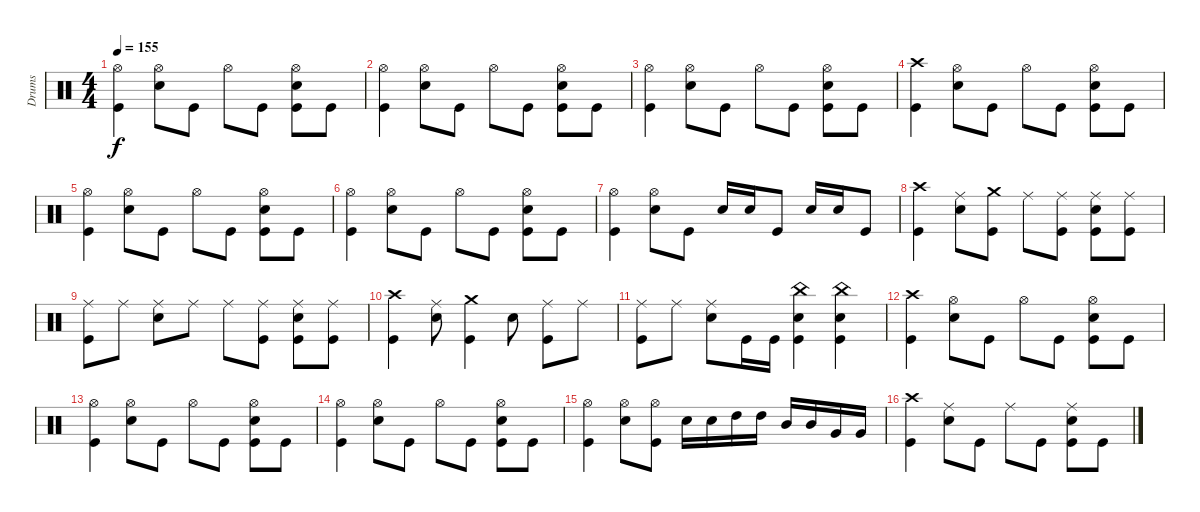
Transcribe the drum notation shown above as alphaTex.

\track ("Drums" "Drums") {instrument percussion}
\staff {score}
\articulation defaults
\ts (4 4)
\tempo 155
\clef neutral
\ks c
("Hi-Hat (open)" "Kick (hit)").4{dy f} ("Hi-Hat (open)" "Snare (hit) 2").8 "Kick (hit)".8 "Hi-Hat (open)".8 "Kick (hit)".8 ("Hi-Hat (open)" "Snare (hit) 2" "Kick (hit)").8 "Kick (hit)".8 |
("Hi-Hat (open)" "Kick (hit)").4 ("Hi-Hat (open)" "Snare (hit) 2").8 "Kick (hit)".8 "Hi-Hat (open)".8 "Kick (hit)".8 ("Hi-Hat (open)" "Snare (hit) 2" "Kick (hit)").8 "Kick (hit)".8 |
("Hi-Hat (open)" "Kick (hit)").4 ("Hi-Hat (open)" "Snare (hit) 2").8 "Kick (hit)".8 "Hi-Hat (open)".8 "Kick (hit)".8 ("Hi-Hat (open)" "Snare (hit) 2" "Kick (hit)").8 "Kick (hit)".8 |
("Crash high (hit)" "Kick (hit)").4 ("Hi-Hat (open)" "Snare (hit) 2").8 "Kick (hit)".8 "Hi-Hat (open)".8 "Kick (hit)".8 ("Hi-Hat (open)" "Snare (hit) 2" "Kick (hit)").8 "Kick (hit)".8 |
("Hi-Hat (open)" "Kick (hit)").4 ("Hi-Hat (open)" "Snare (hit) 2").8 "Kick (hit)".8 "Hi-Hat (open)".8 "Kick (hit)".8 ("Hi-Hat (open)" "Snare (hit) 2" "Kick (hit)").8 "Kick (hit)".8 |
("Hi-Hat (open)" "Kick (hit)").4 ("Hi-Hat (open)" "Snare (hit) 2").8 "Kick (hit)".8 "Hi-Hat (open)".8 "Kick (hit)".8 ("Hi-Hat (open)" "Snare (hit) 2" "Kick (hit)").8 "Kick (hit)".8 |
("Hi-Hat (open)" "Kick (hit)").4 ("Hi-Hat (open)" "Snare (hit) 2").8 "Kick (hit)".8 "Snare (hit) 2".16 "Snare (hit) 2".16 "Kick (hit)".8 "Snare (hit) 2".16 "Snare (hit) 2".16 "Kick (hit)".8 |
("Crash high (hit)" "Kick (hit)").4 ("Ride (middle)" "Snare (hit) 2").8 ("Crash medium (hit)" "Kick (hit)").8 "Ride (middle)".8 ("Ride (middle)" "Kick (hit)").8 ("Ride (middle)" "Snare (hit) 2" "Kick (hit)").8 ("Ride (middle)" "Kick (hit)").8 |
("Ride (middle)" "Kick (hit)").8 "Ride (middle)".8 ("Ride (middle)" "Snare (hit) 2").8 "Ride (middle)".8 "Ride (middle)".8 ("Ride (middle)" "Kick (hit)").8 ("Ride (middle)" "Snare (hit) 2" "Kick (hit)").8 ("Ride (middle)" "Kick (hit)").8 |
("Crash high (hit)" "Kick (hit)").4 ("Ride (middle)" "Snare (hit) 2").8 ("Crash medium (hit)" "Kick (hit)").4 "Snare (hit) 2".8 ("Ride (middle)" "Kick (hit)").8 "Ride (middle)".8 |
("Ride (middle)" "Kick (hit)").8 "Ride (middle)".8 ("Ride (middle)" "Snare (hit) 2").8 "Kick (hit)".16 "Kick (hit)".16 ("China (hit)" "Snare (hit) 2" "Kick (hit)").4 ("China (hit)" "Snare (hit) 2" "Kick (hit)").4 |
("Crash high (hit)" "Kick (hit)").4 ("Hi-Hat (open)" "Snare (hit) 2").8 "Kick (hit)".8 "Hi-Hat (open)".8 "Kick (hit)".8 ("Hi-Hat (open)" "Snare (hit) 2" "Kick (hit)").8 "Kick (hit)".8 |
("Hi-Hat (open)" "Kick (hit)").4 ("Hi-Hat (open)" "Snare (hit) 2").8 "Kick (hit)".8 "Hi-Hat (open)".8 "Kick (hit)".8 ("Hi-Hat (open)" "Snare (hit) 2" "Kick (hit)").8 "Kick (hit)".8 |
("Hi-Hat (open)" "Kick (hit)").4 ("Hi-Hat (open)" "Snare (hit) 2").8 "Kick (hit)".8 "Hi-Hat (open)".8 "Kick (hit)".8 ("Hi-Hat (open)" "Snare (hit) 2" "Kick (hit)").8 "Kick (hit)".8 |
("Hi-Hat (open)" "Kick (hit)").4 ("Hi-Hat (open)" "Snare (hit) 2").8 ("Hi-Hat (open)" "Kick (hit)").8 "Snare (hit) 2".16 "Snare (hit) 2".16 "High Tom (hit)".16 "High Tom (hit)".16 "Mid Tom (hit)".16 "Mid Tom (hit)".16 "Very Low Tom (hit)".16 "Very Low Tom (hit)".16 |
("Crash high (hit)" "Kick (hit)").4 ("Ride (middle)" "Snare (hit) 2").8 "Kick (hit)".8 "Ride (middle)".8 "Kick (hit)".8 ("Ride (middle)" "Snare (hit) 2" "Kick (hit)").8 "Kick (hit)".8
